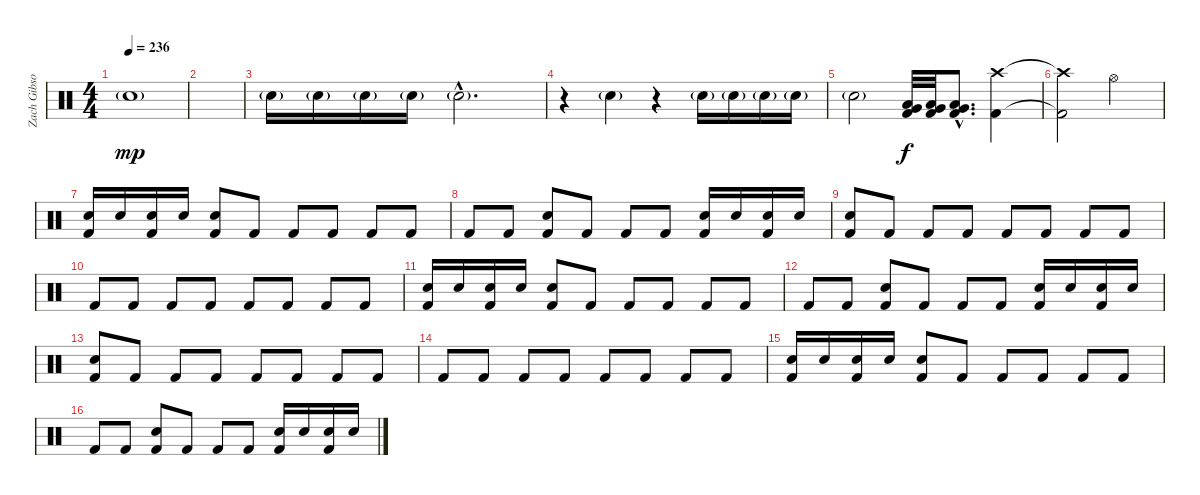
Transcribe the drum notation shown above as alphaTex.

\track ("Zach Gibson (Drums)" "Zach Gibso") {instrument percussion}
\staff {score}
\articulation defaults
\ts (4 4)
\tempo 236
\clef neutral
\ks c "Snare (hit) 2"{g}.1{dy mp}
|
|
"Snare (hit) 2"{g}.16 "Snare (hit) 2"{g}.16 "Snare (hit) 2"{g}.16 "Snare (hit) 2"{g}.16 "Snare (hit) 2"{g hac}.2{d} |
r.4 "Snare (hit) 2"{g}.4 r.4 "Snare (hit) 2"{g}.16 "Snare (hit) 2"{g}.16 "Snare (hit) 2"{g}.16 "Snare (hit) 2"{g}.16 |
"Snare (hit) 2"{g}.2 ("Very Low Tom (hit)" "Low Floor Tom (hit)" "Kick (hit) 2").32{dy f} ("Low Floor Tom (hit)" "Very Low Tom (hit)" "Kick (hit) 2").32 ("Low Floor Tom (hit)"{hac} "Very Low Tom (hit)"{hac} "Kick (hit) 2"{hac}).8{d} ("Crash high (hit)" "Kick (hit) 2").4 |
("Crash high (hit)"{t} "Kick (hit) 2"{t}).2 "Hi-Hat (open)".2 |
("Snare (hit) 2" "Kick (hit) 2").16 "Snare (hit) 2".16 ("Snare (hit) 2" "Kick (hit) 2").16 "Snare (hit) 2".16 ("Snare (hit) 2" "Kick (hit) 2").8 "Kick (hit) 2".8 "Kick (hit) 2".8 "Kick (hit) 2".8 "Kick (hit) 2".8 "Kick (hit) 2".8 |
"Kick (hit) 2".8 "Kick (hit) 2".8 ("Snare (hit) 2" "Kick (hit) 2").8 "Kick (hit) 2".8 "Kick (hit) 2".8 "Kick (hit) 2".8 ("Snare (hit) 2" "Kick (hit) 2").16 "Snare (hit) 2".16 ("Snare (hit) 2" "Kick (hit) 2").16 "Snare (hit) 2".16 |
("Snare (hit) 2" "Kick (hit) 2").8 "Kick (hit) 2".8 "Kick (hit) 2".8 "Kick (hit) 2".8 "Kick (hit) 2".8 "Kick (hit) 2".8 "Kick (hit) 2".8 "Kick (hit) 2".8 |
"Kick (hit) 2".8 "Kick (hit) 2".8 "Kick (hit) 2".8 "Kick (hit) 2".8 "Kick (hit) 2".8 "Kick (hit) 2".8 "Kick (hit) 2".8 "Kick (hit) 2".8 |
("Snare (hit) 2" "Kick (hit) 2").16 "Snare (hit) 2".16 ("Snare (hit) 2" "Kick (hit) 2").16 "Snare (hit) 2".16 ("Snare (hit) 2" "Kick (hit) 2").8 "Kick (hit) 2".8 "Kick (hit) 2".8 "Kick (hit) 2".8 "Kick (hit) 2".8 "Kick (hit) 2".8 |
"Kick (hit) 2".8 "Kick (hit) 2".8 ("Snare (hit) 2" "Kick (hit) 2").8 "Kick (hit) 2".8 "Kick (hit) 2".8 "Kick (hit) 2".8 ("Snare (hit) 2" "Kick (hit) 2").16 "Snare (hit) 2".16 ("Snare (hit) 2" "Kick (hit) 2").16 "Snare (hit) 2".16 |
("Snare (hit) 2" "Kick (hit) 2").8 "Kick (hit) 2".8 "Kick (hit) 2".8 "Kick (hit) 2".8 "Kick (hit) 2".8 "Kick (hit) 2".8 "Kick (hit) 2".8 "Kick (hit) 2".8 |
"Kick (hit) 2".8 "Kick (hit) 2".8 "Kick (hit) 2".8 "Kick (hit) 2".8 "Kick (hit) 2".8 "Kick (hit) 2".8 "Kick (hit) 2".8 "Kick (hit) 2".8 |
("Snare (hit) 2" "Kick (hit) 2").16 "Snare (hit) 2".16 ("Snare (hit) 2" "Kick (hit) 2").16 "Snare (hit) 2".16 ("Snare (hit) 2" "Kick (hit) 2").8 "Kick (hit) 2".8 "Kick (hit) 2".8 "Kick (hit) 2".8 "Kick (hit) 2".8 "Kick (hit) 2".8 |
"Kick (hit) 2".8 "Kick (hit) 2".8 ("Snare (hit) 2" "Kick (hit) 2").8 "Kick (hit) 2".8 "Kick (hit) 2".8 "Kick (hit) 2".8 ("Snare (hit) 2" "Kick (hit) 2").16 "Snare (hit) 2".16 ("Snare (hit) 2" "Kick (hit) 2").16 "Snare (hit) 2".16
